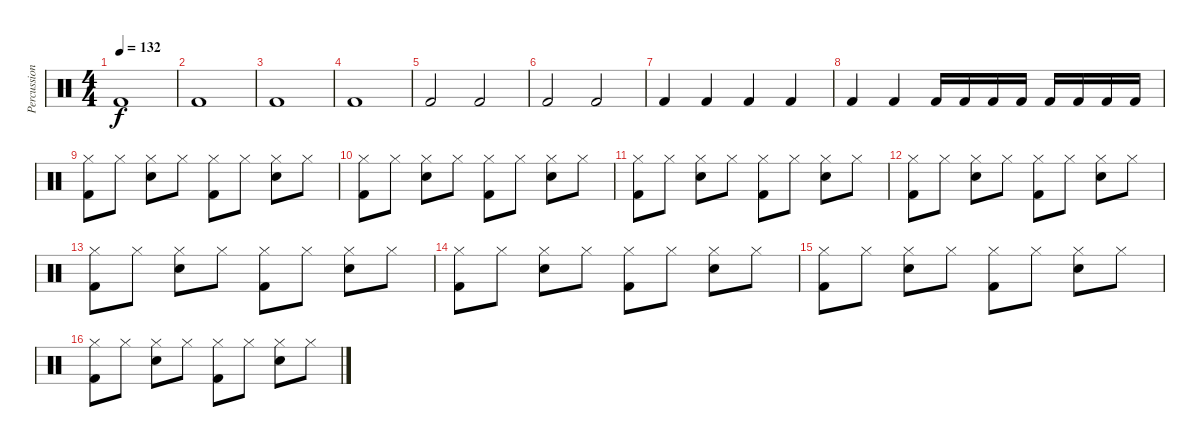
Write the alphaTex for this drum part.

\track ("Percussion" "Percussion") {instrument percussion}
\staff {score}
\articulation defaults
\ts (4 4)
\tempo 132
\clef neutral
\ks c "Kick (hit) 2".1{dy f}
|
"Kick (hit) 2".1 |
"Kick (hit) 2".1 |
"Kick (hit) 2".1 |
"Kick (hit) 2".2 "Kick (hit) 2".2 |
"Kick (hit) 2".2 "Kick (hit) 2".2 |
"Kick (hit) 2".4 "Kick (hit) 2".4 "Kick (hit) 2".4 "Kick (hit) 2".4 |
"Kick (hit) 2".4 "Kick (hit) 2".4 "Kick (hit) 2".16 "Kick (hit) 2".16 "Kick (hit) 2".16 "Kick (hit) 2".16 "Kick (hit) 2".16 "Kick (hit) 2".16 "Kick (hit) 2".16 "Kick (hit) 2".16 |
("Kick (hit) 2" "Hi-Hat (closed)").8 "Hi-Hat (closed)".8 ("Electric Snare (hit)" "Hi-Hat (closed)").8 "Hi-Hat (closed)".8 ("Kick (hit) 2" "Hi-Hat (closed)").8 "Hi-Hat (closed)".8 ("Electric Snare (hit)" "Hi-Hat (closed)").8 "Hi-Hat (closed)".8 |
("Kick (hit) 2" "Hi-Hat (closed)").8 "Hi-Hat (closed)".8 ("Electric Snare (hit)" "Hi-Hat (closed)").8 "Hi-Hat (closed)".8 ("Kick (hit) 2" "Hi-Hat (closed)").8 "Hi-Hat (closed)".8 ("Electric Snare (hit)" "Hi-Hat (closed)").8 "Hi-Hat (closed)".8 |
("Kick (hit) 2" "Hi-Hat (closed)").8 "Hi-Hat (closed)".8 ("Electric Snare (hit)" "Hi-Hat (closed)").8 "Hi-Hat (closed)".8 ("Kick (hit) 2" "Hi-Hat (closed)").8 "Hi-Hat (closed)".8 ("Electric Snare (hit)" "Hi-Hat (closed)").8 "Hi-Hat (closed)".8 |
("Kick (hit) 2" "Hi-Hat (closed)").8 "Hi-Hat (closed)".8 ("Electric Snare (hit)" "Hi-Hat (closed)").8 "Hi-Hat (closed)".8 ("Kick (hit) 2" "Hi-Hat (closed)").8 "Hi-Hat (closed)".8 ("Electric Snare (hit)" "Hi-Hat (closed)").8 "Hi-Hat (closed)".8 |
("Kick (hit) 2" "Hi-Hat (closed)").8 "Hi-Hat (closed)".8 ("Electric Snare (hit)" "Hi-Hat (closed)").8 "Hi-Hat (closed)".8 ("Kick (hit) 2" "Hi-Hat (closed)").8 "Hi-Hat (closed)".8 ("Electric Snare (hit)" "Hi-Hat (closed)").8 "Hi-Hat (closed)".8 |
("Kick (hit) 2" "Hi-Hat (closed)").8 "Hi-Hat (closed)".8 ("Electric Snare (hit)" "Hi-Hat (closed)").8 "Hi-Hat (closed)".8 ("Kick (hit) 2" "Hi-Hat (closed)").8 "Hi-Hat (closed)".8 ("Electric Snare (hit)" "Hi-Hat (closed)").8 "Hi-Hat (closed)".8 |
("Kick (hit) 2" "Hi-Hat (closed)").8 "Hi-Hat (closed)".8 ("Electric Snare (hit)" "Hi-Hat (closed)").8 "Hi-Hat (closed)".8 ("Kick (hit) 2" "Hi-Hat (closed)").8 "Hi-Hat (closed)".8 ("Electric Snare (hit)" "Hi-Hat (closed)").8 "Hi-Hat (closed)".8 |
("Kick (hit) 2" "Hi-Hat (closed)").8 "Hi-Hat (closed)".8 ("Electric Snare (hit)" "Hi-Hat (closed)").8 "Hi-Hat (closed)".8 ("Kick (hit) 2" "Hi-Hat (closed)").8 "Hi-Hat (closed)".8 ("Electric Snare (hit)" "Hi-Hat (closed)").8 "Hi-Hat (closed)".8
